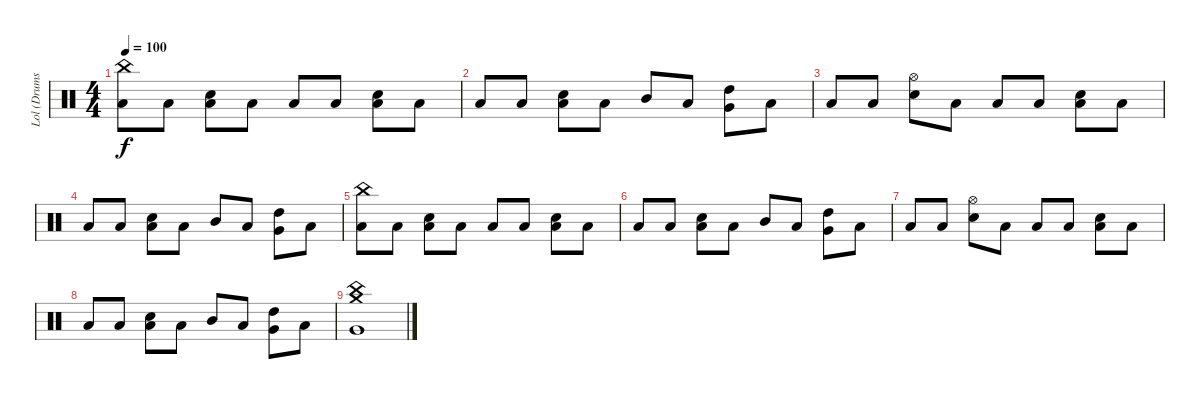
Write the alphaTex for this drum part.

\track ("Lol (Drums)" "Lol (Drums") {instrument percussion}
\staff {score}
\articulation defaults
\ts (4 4)
\tempo 100
\clef neutral
\ks c
("China (hit)" "Low Tom (hit)").8{dy f} "Low Tom (hit)".8 ("Low Tom (hit)" "Snare (hit) 2").8 "Low Tom (hit)".8 "Low Tom (hit)".8 "Low Tom (hit)".8 ("Low Tom (hit)" "Snare (hit) 2").8 "Low Tom (hit)".8 |
"Low Tom (hit)".8 "Low Tom (hit)".8 ("Low Tom (hit)" "Snare (hit) 2").8 "Low Tom (hit)".8 "Mid Tom (hit)".8 "Low Tom (hit)".8 ("High Tom (hit)" "Very Low Tom (hit)").8 "Low Floor Tom (hit)".8 |
"Low Tom (hit)".8 "Low Tom (hit)".8 ("Hi-Hat (open)" "Snare (hit) 2").8 "Low Tom (hit)".8 "Low Tom (hit)".8 "Low Tom (hit)".8 ("Low Tom (hit)" "Snare (hit) 2").8 "Low Tom (hit)".8 |
"Low Tom (hit)".8 "Low Tom (hit)".8 ("Low Tom (hit)" "Snare (hit) 2").8 "Low Tom (hit)".8 "Mid Tom (hit)".8 "Low Tom (hit)".8 ("High Tom (hit)" "Very Low Tom (hit)").8 "Low Floor Tom (hit)".8 |
("China (hit)" "Low Tom (hit)").8 "Low Tom (hit)".8 ("Low Tom (hit)" "Snare (hit) 2").8 "Low Tom (hit)".8 "Low Tom (hit)".8 "Low Tom (hit)".8 ("Low Tom (hit)" "Snare (hit) 2").8 "Low Tom (hit)".8 |
"Low Tom (hit)".8 "Low Tom (hit)".8 ("Low Tom (hit)" "Snare (hit) 2").8 "Low Tom (hit)".8 "Mid Tom (hit)".8 "Low Tom (hit)".8 ("High Tom (hit)" "Very Low Tom (hit)").8 "Low Floor Tom (hit)".8 |
"Low Tom (hit)".8 "Low Tom (hit)".8 ("Hi-Hat (open)" "Snare (hit) 2").8 "Low Tom (hit)".8 "Low Tom (hit)".8 "Low Tom (hit)".8 ("Low Tom (hit)" "Snare (hit) 2").8 "Low Tom (hit)".8 |
"Low Tom (hit)".8 "Low Tom (hit)".8 ("Low Tom (hit)" "Snare (hit) 2").8 "Low Tom (hit)".8 "Mid Tom (hit)".8 "Low Tom (hit)".8 ("High Tom (hit)" "Very Low Tom (hit)").8 "Low Floor Tom (hit)".8 |
("China (hit)" "Crash medium (hit)" "Very Low Tom (hit)").1
